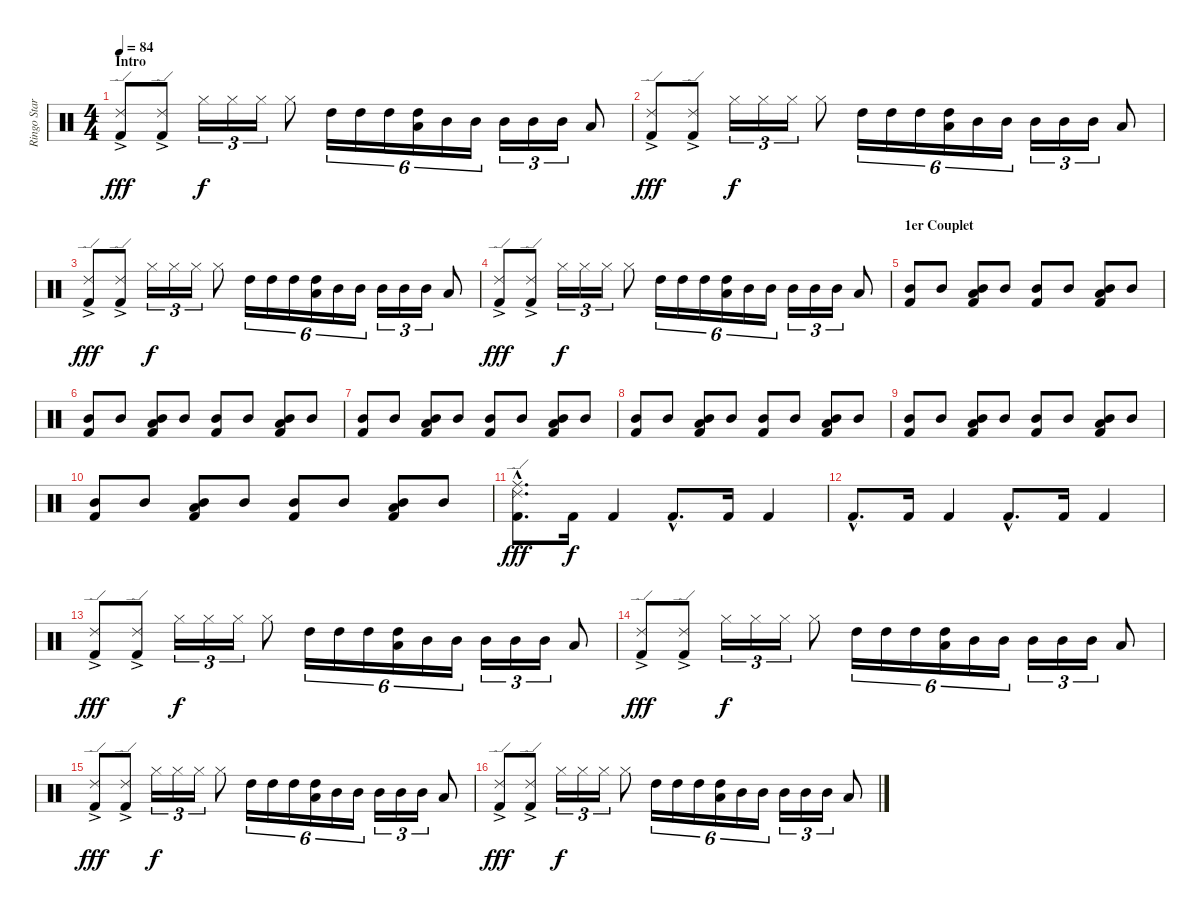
\track ("Ringo Starr (Batterie)" "Ringo Star") {instrument percussion}
\staff {score}
\articulation defaults
\ts (4 4)
\section ("" "Intro")
\tempo 84
\clef neutral
\ks c
("Ride (edge) 2"{ac} "Kick (hit) 2").8{dy fff} ("Ride (edge) 2"{ac} "Kick (hit) 2").8 "Hi-Hat (closed)".16{tu (3 2) dy f} "Hi-Hat (closed)".16{tu (3 2)} "Hi-Hat (closed)".16{tu (3 2)} "Hi-Hat (closed)".8 "High Tom (hit)".16{tu (6 4)} "High Tom (hit)".16{tu (6 4)} "High Tom (hit)".16{tu (6 4)} ("High Tom (hit)" "Low Tom (hit)").16{tu (6 4)} "Mid Tom (hit)".16{tu (6 4)} "Mid Tom (hit)".16{tu (6 4)} "Mid Tom (hit)".16{tu (3 2)} "Mid Tom (hit)".16{tu (3 2)} "Mid Tom (hit)".16{tu (3 2)} "Low Tom (hit)".8 |
("Ride (edge) 2"{ac} "Kick (hit) 2").8{dy fff} ("Ride (edge) 2"{ac} "Kick (hit) 2").8 "Hi-Hat (closed)".16{tu (3 2) dy f} "Hi-Hat (closed)".16{tu (3 2)} "Hi-Hat (closed)".16{tu (3 2)} "Hi-Hat (closed)".8 "High Tom (hit)".16{tu (6 4)} "High Tom (hit)".16{tu (6 4)} "High Tom (hit)".16{tu (6 4)} ("High Tom (hit)" "Low Tom (hit)").16{tu (6 4)} "Mid Tom (hit)".16{tu (6 4)} "Mid Tom (hit)".16{tu (6 4)} "Mid Tom (hit)".16{tu (3 2)} "Mid Tom (hit)".16{tu (3 2)} "Mid Tom (hit)".16{tu (3 2)} "Low Tom (hit)".8 |
("Ride (edge) 2"{ac} "Kick (hit) 2").8{dy fff} ("Ride (edge) 2"{ac} "Kick (hit) 2").8 "Hi-Hat (closed)".16{tu (3 2) dy f} "Hi-Hat (closed)".16{tu (3 2)} "Hi-Hat (closed)".16{tu (3 2)} "Hi-Hat (closed)".8 "High Tom (hit)".16{tu (6 4)} "High Tom (hit)".16{tu (6 4)} "High Tom (hit)".16{tu (6 4)} ("High Tom (hit)" "Low Tom (hit)").16{tu (6 4)} "Mid Tom (hit)".16{tu (6 4)} "Mid Tom (hit)".16{tu (6 4)} "Mid Tom (hit)".16{tu (3 2)} "Mid Tom (hit)".16{tu (3 2)} "Mid Tom (hit)".16{tu (3 2)} "Low Tom (hit)".8 |
("Ride (edge) 2"{ac} "Kick (hit) 2").8{dy fff} ("Ride (edge) 2"{ac} "Kick (hit) 2").8 "Hi-Hat (closed)".16{tu (3 2) dy f} "Hi-Hat (closed)".16{tu (3 2)} "Hi-Hat (closed)".16{tu (3 2)} "Hi-Hat (closed)".8 "High Tom (hit)".16{tu (6 4)} "High Tom (hit)".16{tu (6 4)} "High Tom (hit)".16{tu (6 4)} ("High Tom (hit)" "Low Tom (hit)").16{tu (6 4)} "Mid Tom (hit)".16{tu (6 4)} "Mid Tom (hit)".16{tu (6 4)} "Mid Tom (hit)".16{tu (3 2)} "Mid Tom (hit)".16{tu (3 2)} "Mid Tom (hit)".16{tu (3 2)} "Low Tom (hit)".8 |
\section ("" "1er Couplet")
("Mid Tom (hit)" "Kick (hit) 2").8 "Mid Tom (hit)".8 ("Mid Tom (hit)" "Low Tom (hit)" "Kick (hit) 2").8 "Mid Tom (hit)".8 ("Mid Tom (hit)" "Kick (hit) 2").8 "Mid Tom (hit)".8 ("Mid Tom (hit)" "Low Tom (hit)" "Kick (hit) 2").8 "Mid Tom (hit)".8 |
("Mid Tom (hit)" "Kick (hit) 2").8 "Mid Tom (hit)".8 ("Mid Tom (hit)" "Low Tom (hit)" "Kick (hit) 2").8 "Mid Tom (hit)".8 ("Mid Tom (hit)" "Kick (hit) 2").8 "Mid Tom (hit)".8 ("Mid Tom (hit)" "Low Tom (hit)" "Kick (hit) 2").8 "Mid Tom (hit)".8 |
("Mid Tom (hit)" "Kick (hit) 2").8 "Mid Tom (hit)".8 ("Mid Tom (hit)" "Low Tom (hit)" "Kick (hit) 2").8 "Mid Tom (hit)".8 ("Mid Tom (hit)" "Kick (hit) 2").8 "Mid Tom (hit)".8 ("Mid Tom (hit)" "Low Tom (hit)" "Kick (hit) 2").8 "Mid Tom (hit)".8 |
("Mid Tom (hit)" "Kick (hit) 2").8 "Mid Tom (hit)".8 ("Mid Tom (hit)" "Low Tom (hit)" "Kick (hit) 2").8 "Mid Tom (hit)".8 ("Mid Tom (hit)" "Kick (hit) 2").8 "Mid Tom (hit)".8 ("Mid Tom (hit)" "Low Tom (hit)" "Kick (hit) 2").8 "Mid Tom (hit)".8 |
("Mid Tom (hit)" "Kick (hit) 2").8 "Mid Tom (hit)".8 ("Mid Tom (hit)" "Low Tom (hit)" "Kick (hit) 2").8 "Mid Tom (hit)".8 ("Mid Tom (hit)" "Kick (hit) 2").8 "Mid Tom (hit)".8 ("Mid Tom (hit)" "Low Tom (hit)" "Kick (hit) 2").8 "Mid Tom (hit)".8 |
("Mid Tom (hit)" "Kick (hit) 2").8 "Mid Tom (hit)".8 ("Mid Tom (hit)" "Low Tom (hit)" "Kick (hit) 2").8 "Mid Tom (hit)".8 ("Mid Tom (hit)" "Kick (hit) 2").8 "Mid Tom (hit)".8 ("Mid Tom (hit)" "Low Tom (hit)" "Kick (hit) 2").8 "Mid Tom (hit)".8 |
("Ride (edge) 2"{hac} "Ride (middle)"{hac} "Kick (hit) 2"{hac}).8{d dy fff} "Kick (hit) 2".16{dy f} "Kick (hit) 2".4 "Kick (hit) 2"{hac}.8{d} "Kick (hit) 2".16 "Kick (hit) 2".4 |
"Kick (hit) 2"{hac}.8{d} "Kick (hit) 2".16 "Kick (hit) 2".4 "Kick (hit) 2"{hac}.8{d} "Kick (hit) 2".16 "Kick (hit) 2".4 |
("Ride (edge) 2"{ac} "Kick (hit) 2").8{dy fff} ("Ride (edge) 2"{ac} "Kick (hit) 2").8 "Hi-Hat (closed)".16{tu (3 2) dy f} "Hi-Hat (closed)".16{tu (3 2)} "Hi-Hat (closed)".16{tu (3 2)} "Hi-Hat (closed)".8 "High Tom (hit)".16{tu (6 4)} "High Tom (hit)".16{tu (6 4)} "High Tom (hit)".16{tu (6 4)} ("High Tom (hit)" "Low Tom (hit)").16{tu (6 4)} "Mid Tom (hit)".16{tu (6 4)} "Mid Tom (hit)".16{tu (6 4)} "Mid Tom (hit)".16{tu (3 2)} "Mid Tom (hit)".16{tu (3 2)} "Mid Tom (hit)".16{tu (3 2)} "Low Tom (hit)".8 |
("Ride (edge) 2"{ac} "Kick (hit) 2").8{dy fff} ("Ride (edge) 2"{ac} "Kick (hit) 2").8 "Hi-Hat (closed)".16{tu (3 2) dy f} "Hi-Hat (closed)".16{tu (3 2)} "Hi-Hat (closed)".16{tu (3 2)} "Hi-Hat (closed)".8 "High Tom (hit)".16{tu (6 4)} "High Tom (hit)".16{tu (6 4)} "High Tom (hit)".16{tu (6 4)} ("High Tom (hit)" "Low Tom (hit)").16{tu (6 4)} "Mid Tom (hit)".16{tu (6 4)} "Mid Tom (hit)".16{tu (6 4)} "Mid Tom (hit)".16{tu (3 2)} "Mid Tom (hit)".16{tu (3 2)} "Mid Tom (hit)".16{tu (3 2)} "Low Tom (hit)".8 |
("Ride (edge) 2"{ac} "Kick (hit) 2").8{dy fff} ("Ride (edge) 2"{ac} "Kick (hit) 2").8 "Hi-Hat (closed)".16{tu (3 2) dy f} "Hi-Hat (closed)".16{tu (3 2)} "Hi-Hat (closed)".16{tu (3 2)} "Hi-Hat (closed)".8 "High Tom (hit)".16{tu (6 4)} "High Tom (hit)".16{tu (6 4)} "High Tom (hit)".16{tu (6 4)} ("High Tom (hit)" "Low Tom (hit)").16{tu (6 4)} "Mid Tom (hit)".16{tu (6 4)} "Mid Tom (hit)".16{tu (6 4)} "Mid Tom (hit)".16{tu (3 2)} "Mid Tom (hit)".16{tu (3 2)} "Mid Tom (hit)".16{tu (3 2)} "Low Tom (hit)".8 |
("Ride (edge) 2"{ac} "Kick (hit) 2").8{dy fff} ("Ride (edge) 2"{ac} "Kick (hit) 2").8 "Hi-Hat (closed)".16{tu (3 2) dy f} "Hi-Hat (closed)".16{tu (3 2)} "Hi-Hat (closed)".16{tu (3 2)} "Hi-Hat (closed)".8 "High Tom (hit)".16{tu (6 4)} "High Tom (hit)".16{tu (6 4)} "High Tom (hit)".16{tu (6 4)} ("High Tom (hit)" "Low Tom (hit)").16{tu (6 4)} "Mid Tom (hit)".16{tu (6 4)} "Mid Tom (hit)".16{tu (6 4)} "Mid Tom (hit)".16{tu (3 2)} "Mid Tom (hit)".16{tu (3 2)} "Mid Tom (hit)".16{tu (3 2)} "Low Tom (hit)".8
